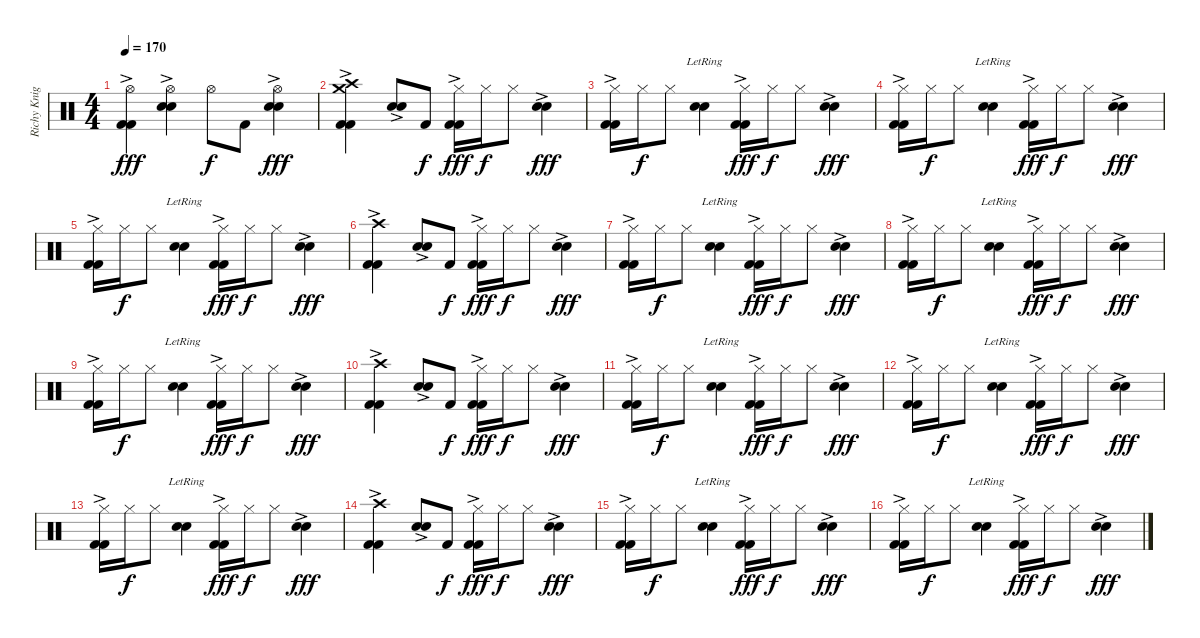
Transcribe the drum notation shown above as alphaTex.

\track ("Richy Knight (Drums)" "Richy Knig") {instrument percussion}
\staff {score}
\articulation defaults
\ts (4 4)
\tempo 170
\clef neutral
\ks c
("Hi-Hat (open)"{ac} "Kick (hit) 2"{ac} "Kick (hit) 2"{ac}).4{dy fff} ("Hi-Hat (open)"{ac} "Electric Snare (hit)"{ac} "Electric Snare (hit)"{ac}).4 "Hi-Hat (open)".8{dy f} "Kick (hit) 2".8 ("Hi-Hat (open)"{ac} "Electric Snare (hit)"{ac} "Electric Snare (hit)"{ac}).4{dy fff} |
("Crash high (hit)"{ac} "Crash medium (hit)"{ac} "Kick (hit) 2"{ac} "Kick (hit) 2"{ac}).4 ("Electric Snare (hit)"{ac} "Electric Snare (hit)"{ac}).8 "Kick (hit) 2".8{dy f} ("Hi-Hat (closed)" "Kick (hit) 2"{ac} "Kick (hit) 2"{ac}).16{dy fff} "Hi-Hat (closed)".16{dy f} "Hi-Hat (closed)".8 ("Electric Snare (hit)"{ac} "Electric Snare (hit)"{ac}).4{dy fff} |
("Hi-Hat (closed)" "Kick (hit) 2"{ac} "Kick (hit) 2"{ac}).16 "Hi-Hat (closed)".16{dy f} "Hi-Hat (closed)".8 ("Electric Snare (hit)"{lr} "Electric Snare (hit)"{lr}).4 ("Hi-Hat (closed)" "Kick (hit) 2"{ac} "Kick (hit) 2"{ac}).16{dy fff} "Hi-Hat (closed)".16{dy f} "Hi-Hat (closed)".8 ("Electric Snare (hit)"{ac} "Electric Snare (hit)"{ac}).4{dy fff} |
("Hi-Hat (closed)" "Kick (hit) 2"{ac} "Kick (hit) 2"{ac}).16 "Hi-Hat (closed)".16{dy f} "Hi-Hat (closed)".8 ("Electric Snare (hit)"{lr} "Electric Snare (hit)"{lr}).4 ("Hi-Hat (closed)" "Kick (hit) 2"{ac} "Kick (hit) 2"{ac}).16{dy fff} "Hi-Hat (closed)".16{dy f} "Hi-Hat (closed)".8 ("Electric Snare (hit)"{ac} "Electric Snare (hit)"{ac}).4{dy fff} |
("Hi-Hat (closed)" "Kick (hit) 2"{ac} "Kick (hit) 2"{ac}).16 "Hi-Hat (closed)".16{dy f} "Hi-Hat (closed)".8 ("Electric Snare (hit)"{lr} "Electric Snare (hit)"{lr}).4 ("Hi-Hat (closed)" "Kick (hit) 2"{ac} "Kick (hit) 2"{ac}).16{dy fff} "Hi-Hat (closed)".16{dy f} "Hi-Hat (closed)".8 ("Electric Snare (hit)"{ac} "Electric Snare (hit)"{ac}).4{dy fff} |
("Crash high (hit)"{ac} "Kick (hit) 2"{ac} "Kick (hit) 2"{ac}).4 ("Electric Snare (hit)"{ac} "Electric Snare (hit)"{ac}).8 "Kick (hit) 2".8{dy f} ("Hi-Hat (closed)" "Kick (hit) 2"{ac} "Kick (hit) 2"{ac}).16{dy fff} "Hi-Hat (closed)".16{dy f} "Hi-Hat (closed)".8 ("Electric Snare (hit)"{ac} "Electric Snare (hit)"{ac}).4{dy fff} |
("Hi-Hat (closed)" "Kick (hit) 2"{ac} "Kick (hit) 2"{ac}).16 "Hi-Hat (closed)".16{dy f} "Hi-Hat (closed)".8 ("Electric Snare (hit)"{lr} "Electric Snare (hit)"{lr}).4 ("Hi-Hat (closed)" "Kick (hit) 2"{ac} "Kick (hit) 2"{ac}).16{dy fff} "Hi-Hat (closed)".16{dy f} "Hi-Hat (closed)".8 ("Electric Snare (hit)"{ac} "Electric Snare (hit)"{ac}).4{dy fff} |
("Hi-Hat (closed)" "Kick (hit) 2"{ac} "Kick (hit) 2"{ac}).16 "Hi-Hat (closed)".16{dy f} "Hi-Hat (closed)".8 ("Electric Snare (hit)"{lr} "Electric Snare (hit)"{lr}).4 ("Hi-Hat (closed)" "Kick (hit) 2"{ac} "Kick (hit) 2"{ac}).16{dy fff} "Hi-Hat (closed)".16{dy f} "Hi-Hat (closed)".8 ("Electric Snare (hit)"{ac} "Electric Snare (hit)"{ac}).4{dy fff} |
("Hi-Hat (closed)" "Kick (hit) 2"{ac} "Kick (hit) 2"{ac}).16 "Hi-Hat (closed)".16{dy f} "Hi-Hat (closed)".8 ("Electric Snare (hit)"{lr} "Electric Snare (hit)"{lr}).4 ("Hi-Hat (closed)" "Kick (hit) 2"{ac} "Kick (hit) 2"{ac}).16{dy fff} "Hi-Hat (closed)".16{dy f} "Hi-Hat (closed)".8 ("Electric Snare (hit)"{ac} "Electric Snare (hit)"{ac}).4{dy fff} |
("Crash high (hit)"{ac} "Kick (hit) 2"{ac} "Kick (hit) 2"{ac}).4 ("Electric Snare (hit)"{ac} "Electric Snare (hit)"{ac}).8 "Kick (hit) 2".8{dy f} ("Hi-Hat (closed)" "Kick (hit) 2"{ac} "Kick (hit) 2"{ac}).16{dy fff} "Hi-Hat (closed)".16{dy f} "Hi-Hat (closed)".8 ("Electric Snare (hit)"{ac} "Electric Snare (hit)"{ac}).4{dy fff} |
("Hi-Hat (closed)" "Kick (hit) 2"{ac} "Kick (hit) 2"{ac}).16 "Hi-Hat (closed)".16{dy f} "Hi-Hat (closed)".8 ("Electric Snare (hit)"{lr} "Electric Snare (hit)"{lr}).4 ("Hi-Hat (closed)" "Kick (hit) 2"{ac} "Kick (hit) 2"{ac}).16{dy fff} "Hi-Hat (closed)".16{dy f} "Hi-Hat (closed)".8 ("Electric Snare (hit)"{ac} "Electric Snare (hit)"{ac}).4{dy fff} |
("Hi-Hat (closed)" "Kick (hit) 2"{ac} "Kick (hit) 2"{ac}).16 "Hi-Hat (closed)".16{dy f} "Hi-Hat (closed)".8 ("Electric Snare (hit)"{lr} "Electric Snare (hit)"{lr}).4 ("Hi-Hat (closed)" "Kick (hit) 2"{ac} "Kick (hit) 2"{ac}).16{dy fff} "Hi-Hat (closed)".16{dy f} "Hi-Hat (closed)".8 ("Electric Snare (hit)"{ac} "Electric Snare (hit)"{ac}).4{dy fff} |
("Hi-Hat (closed)" "Kick (hit) 2"{ac} "Kick (hit) 2"{ac}).16 "Hi-Hat (closed)".16{dy f} "Hi-Hat (closed)".8 ("Electric Snare (hit)"{lr} "Electric Snare (hit)"{lr}).4 ("Hi-Hat (closed)" "Kick (hit) 2"{ac} "Kick (hit) 2"{ac}).16{dy fff} "Hi-Hat (closed)".16{dy f} "Hi-Hat (closed)".8 ("Electric Snare (hit)"{ac} "Electric Snare (hit)"{ac}).4{dy fff} |
("Crash high (hit)"{ac} "Kick (hit) 2"{ac} "Kick (hit) 2"{ac}).4 ("Electric Snare (hit)"{ac} "Electric Snare (hit)"{ac}).8 "Kick (hit) 2".8{dy f} ("Hi-Hat (closed)" "Kick (hit) 2"{ac} "Kick (hit) 2"{ac}).16{dy fff} "Hi-Hat (closed)".16{dy f} "Hi-Hat (closed)".8 ("Electric Snare (hit)"{ac} "Electric Snare (hit)"{ac}).4{dy fff} |
("Hi-Hat (closed)" "Kick (hit) 2"{ac} "Kick (hit) 2"{ac}).16 "Hi-Hat (closed)".16{dy f} "Hi-Hat (closed)".8 ("Electric Snare (hit)"{lr} "Electric Snare (hit)"{lr}).4 ("Hi-Hat (closed)" "Kick (hit) 2"{ac} "Kick (hit) 2"{ac}).16{dy fff} "Hi-Hat (closed)".16{dy f} "Hi-Hat (closed)".8 ("Electric Snare (hit)"{ac} "Electric Snare (hit)"{ac}).4{dy fff} |
("Hi-Hat (closed)" "Kick (hit) 2"{ac} "Kick (hit) 2"{ac}).16 "Hi-Hat (closed)".16{dy f} "Hi-Hat (closed)".8 ("Electric Snare (hit)"{lr} "Electric Snare (hit)"{lr}).4 ("Hi-Hat (closed)" "Kick (hit) 2"{ac} "Kick (hit) 2"{ac}).16{dy fff} "Hi-Hat (closed)".16{dy f} "Hi-Hat (closed)".8 ("Electric Snare (hit)"{ac} "Electric Snare (hit)"{ac}).4{dy fff}
